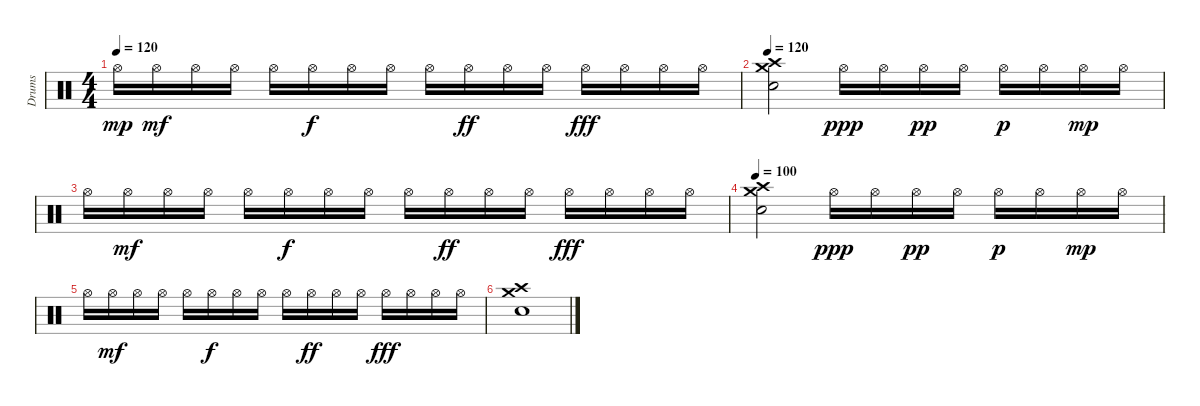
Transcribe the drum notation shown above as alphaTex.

\track ("Drums" "Drums") {instrument percussion}
\staff {score}
\articulation defaults
\ts (4 4)
\tempo 120
\clef neutral
\ks c "Hi-Hat (open)".16{dy mp} "Hi-Hat (open)".16{dy mf} "Hi-Hat (open)".16 "Hi-Hat (open)".16 "Hi-Hat (open)".16 "Hi-Hat (open)".16{dy f} "Hi-Hat (open)".16 "Hi-Hat (open)".16 "Hi-Hat (open)".16 "Hi-Hat (open)".16{dy ff} "Hi-Hat (open)".16 "Hi-Hat (open)".16 "Hi-Hat (open)".16{dy fff} "Hi-Hat (open)".16 "Hi-Hat (open)".16 "Hi-Hat (open)".16
|
\tempo 120
("Crash high (hit)" "Crash medium (hit)" "Electric Snare (hit)").2 "Hi-Hat (open)".16{dy ppp} "Hi-Hat (open)".16 "Hi-Hat (open)".16{dy pp} "Hi-Hat (open)".16 "Hi-Hat (open)".16{dy p} "Hi-Hat (open)".16 "Hi-Hat (open)".16{dy mp} "Hi-Hat (open)".16 |
"Hi-Hat (open)".16 "Hi-Hat (open)".16{dy mf} "Hi-Hat (open)".16 "Hi-Hat (open)".16 "Hi-Hat (open)".16 "Hi-Hat (open)".16{dy f} "Hi-Hat (open)".16 "Hi-Hat (open)".16 "Hi-Hat (open)".16 "Hi-Hat (open)".16{dy ff} "Hi-Hat (open)".16 "Hi-Hat (open)".16 "Hi-Hat (open)".16{dy fff} "Hi-Hat (open)".16 "Hi-Hat (open)".16 "Hi-Hat (open)".16 |
\tempo 100
("Crash high (hit)" "Crash medium (hit)" "Electric Snare (hit)").2 "Hi-Hat (open)".16{dy ppp} "Hi-Hat (open)".16 "Hi-Hat (open)".16{dy pp} "Hi-Hat (open)".16 "Hi-Hat (open)".16{dy p} "Hi-Hat (open)".16 "Hi-Hat (open)".16{dy mp} "Hi-Hat (open)".16 |
"Hi-Hat (open)".16 "Hi-Hat (open)".16{dy mf} "Hi-Hat (open)".16 "Hi-Hat (open)".16 "Hi-Hat (open)".16 "Hi-Hat (open)".16{dy f} "Hi-Hat (open)".16 "Hi-Hat (open)".16 "Hi-Hat (open)".16 "Hi-Hat (open)".16{dy ff} "Hi-Hat (open)".16 "Hi-Hat (open)".16 "Hi-Hat (open)".16{dy fff} "Hi-Hat (open)".16 "Hi-Hat (open)".16 "Hi-Hat (open)".16 |
("Crash high (hit)" "Crash medium (hit)" "Electric Snare (hit)").1
